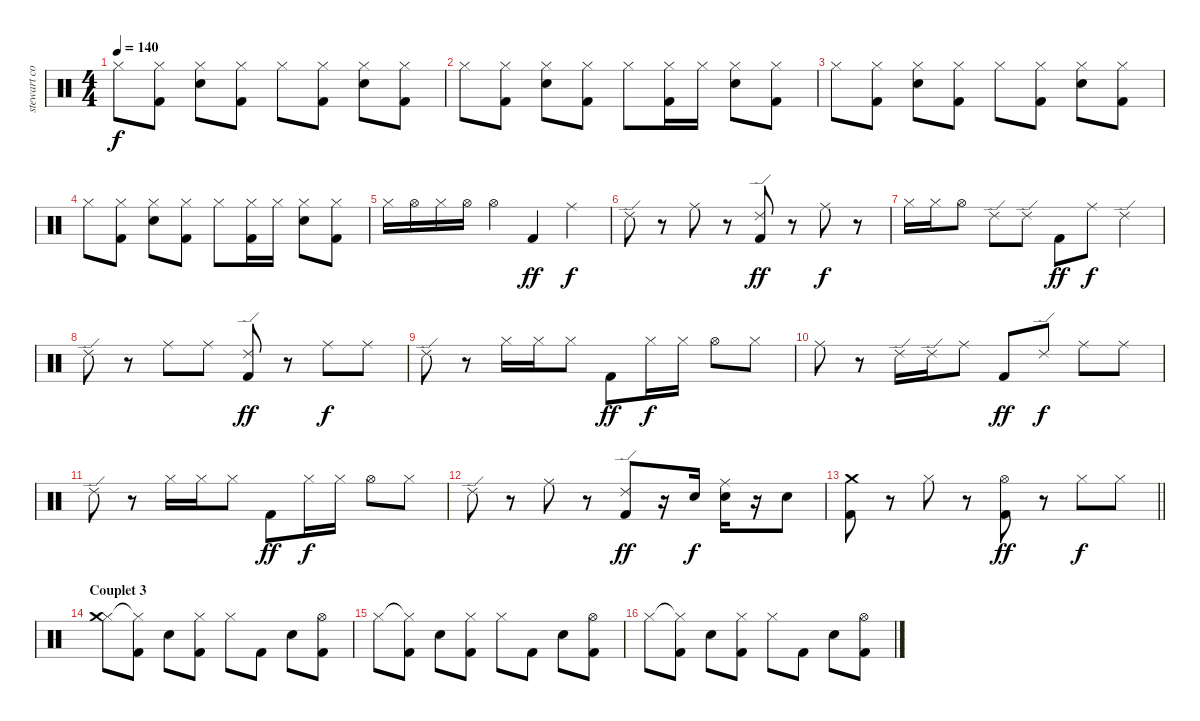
\track ("stewart copeland" "stewart co") {instrument percussion}
\staff {score}
\articulation defaults
\ts (4 4)
\tempo 140
\clef neutral
\ks c "Hi-Hat (closed)".8{dy f}
("Hi-Hat (closed)" "Kick (hit) 2").8 ("Hi-Hat (closed)" "Snare (hit) 2").8 ("Hi-Hat (closed)" "Kick (hit) 2").8 "Hi-Hat (closed)".8 ("Hi-Hat (closed)" "Kick (hit) 2").8 ("Hi-Hat (closed)" "Snare (hit) 2").8 ("Hi-Hat (closed)" "Kick (hit) 2").8 |
"Hi-Hat (closed)".8 ("Hi-Hat (closed)" "Kick (hit) 2").8 ("Hi-Hat (closed)" "Snare (hit) 2").8 ("Hi-Hat (closed)" "Kick (hit) 2").8 "Hi-Hat (closed)".8 ("Hi-Hat (closed)" "Kick (hit) 2").16 "Hi-Hat (closed)".16 ("Hi-Hat (closed)" "Snare (hit) 2").8 ("Hi-Hat (closed)" "Kick (hit) 2").8 |
"Hi-Hat (closed)".8 ("Hi-Hat (closed)" "Kick (hit) 2").8 ("Hi-Hat (closed)" "Snare (hit) 2").8 ("Hi-Hat (closed)" "Kick (hit) 2").8 "Hi-Hat (closed)".8 ("Hi-Hat (closed)" "Kick (hit) 2").8 ("Hi-Hat (closed)" "Snare (hit) 2").8 ("Hi-Hat (closed)" "Kick (hit) 2").8 |
"Hi-Hat (closed)".8 ("Hi-Hat (closed)" "Kick (hit) 2").8 ("Hi-Hat (closed)" "Snare (hit) 2").8 ("Hi-Hat (closed)" "Kick (hit) 2").8 "Hi-Hat (closed)".8 ("Hi-Hat (closed)" "Kick (hit) 2").16 "Hi-Hat (closed)".16 ("Hi-Hat (closed)" "Snare (hit) 2").8 ("Hi-Hat (closed)" "Kick (hit) 2").8 |
"Hi-Hat (closed)".16 "Hi-Hat (open)".16 "Hi-Hat (closed)".16 "Hi-Hat (open)".16 "Hi-Hat (open)".4 "Kick (hit) 2".4{dy ff} "Ride (middle)".4{dy f} |
"Ride (edge) 2".8 r.8 "Ride (middle)".8 r.8 ("Ride (edge) 2" "Kick (hit) 2").8{dy ff} r.8 "Ride (middle)".8{dy f} r.8 |
"Hi-Hat (closed)".16 "Hi-Hat (closed)".16 "Hi-Hat (open)".8 "Ride (edge) 2".8 "Ride (edge) 2".8 "Kick (hit) 2".8{dy ff} "Ride (middle)".8{dy f} "Ride (edge) 2".4 |
"Ride (edge) 2".8 r.8 "Ride (middle)".8 "Ride (middle)".8 ("Ride (edge) 2" "Kick (hit) 2").8{dy ff} r.8 "Ride (middle)".8{dy f} "Ride (middle)".8 |
"Ride (edge) 2".8 r.8 "Hi-Hat (closed)".16 "Hi-Hat (closed)".16 "Hi-Hat (closed)".8 "Kick (hit) 2".8{dy ff} "Hi-Hat (closed)".16{dy f} "Hi-Hat (closed)".16 "Hi-Hat (open)".8 "Hi-Hat (closed)".8 |
"Ride (middle)".8 r.8 "Ride (edge) 2".16 "Ride (edge) 2".16 "Ride (middle)".8 "Kick (hit) 2".8{dy ff} "Ride (edge) 2".8{dy f} "Ride (middle)".8 "Ride (middle)".8 |
"Ride (edge) 2".8 r.8 "Hi-Hat (closed)".16 "Hi-Hat (closed)".16 "Hi-Hat (closed)".8 "Kick (hit) 2".8{dy ff} "Hi-Hat (closed)".16{dy f} "Hi-Hat (closed)".16 "Hi-Hat (open)".8 "Hi-Hat (closed)".8 |
"Ride (edge) 2".8 r.8 "Ride (middle)".8 r.8 ("Ride (edge) 2" "Kick (hit) 2").8{dy ff} r.16 "Snare (hit) 2".16{dy f} ("Ride (middle)" "Snare (hit) 2").16 r.16 "Snare (hit) 2".8 |
\barLineRight lightlight
("Crash medium (hit)" "Kick (hit) 2").8 r.8 "Hi-Hat (closed)".8 r.8 ("Hi-Hat (open)" "Kick (hit) 2").8{dy ff} r.8 "Hi-Hat (closed)".8{dy f} "Hi-Hat (closed)".8 |
\section ("" "Couplet 3")
("Hi-Hat (closed)" "Crash medium (hit)").8 ("Hi-Hat (closed)"{t} "Kick (hit) 2").8 "Snare (hit) 2".8 ("Hi-Hat (closed)" "Kick (hit) 2").8 "Hi-Hat (closed)".8 "Kick (hit) 2".8 "Snare (hit) 2".8 ("Hi-Hat (open)" "Kick (hit) 2").8 |
"Hi-Hat (closed)".8 ("Hi-Hat (closed)"{t} "Kick (hit) 2").8 "Snare (hit) 2".8 ("Hi-Hat (closed)" "Kick (hit) 2").8 "Hi-Hat (closed)".8 "Kick (hit) 2".8 "Snare (hit) 2".8 ("Hi-Hat (open)" "Kick (hit) 2").8 |
"Hi-Hat (closed)".8 ("Hi-Hat (closed)"{t} "Kick (hit) 2").8 "Snare (hit) 2".8 ("Hi-Hat (closed)" "Kick (hit) 2").8 "Hi-Hat (closed)".8 "Kick (hit) 2".8 "Snare (hit) 2".8 ("Hi-Hat (open)" "Kick (hit) 2").8
